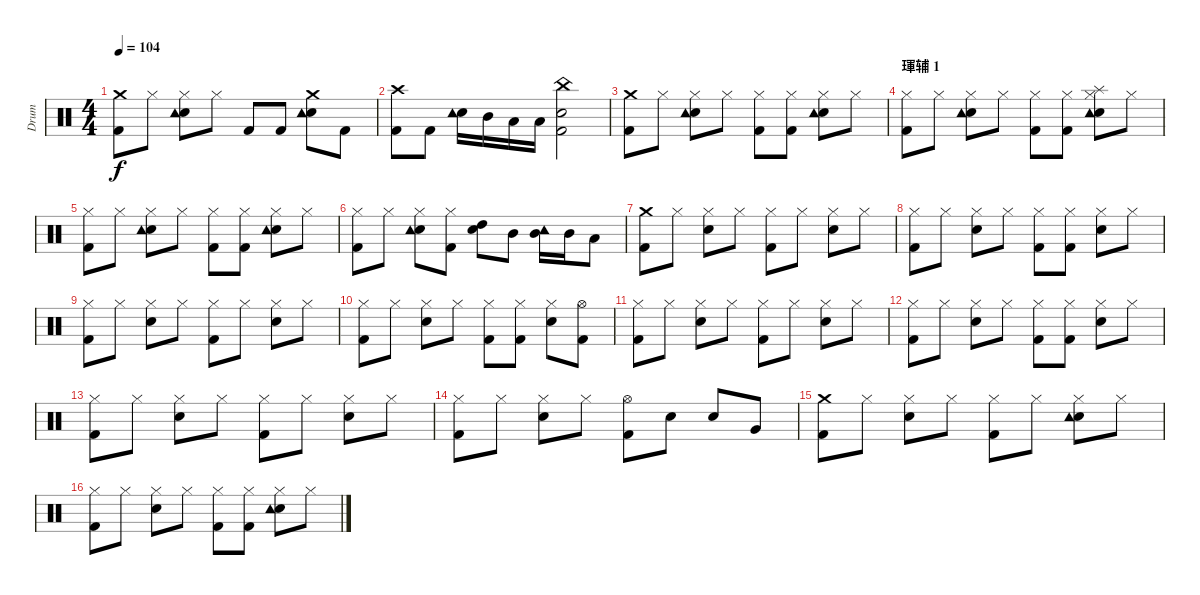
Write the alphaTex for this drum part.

\track ("Drum" "Drum") {instrument percussion}
\staff {score}
\articulation defaults
\ts (4 4)
\tempo 104
\clef neutral
\ks c
("Crash medium (hit)" "Kick (hit) 2").8{dy f} "Hi-Hat (closed)".8 ("Snare (hit) 2" "Hi-Hat (closed)" "Tambourine (hit)").8 "Hi-Hat (closed)".8 "Kick (hit) 2".8 "Kick (hit) 2".8 ("Snare (hit) 2" "Crash medium (hit)" "Tambourine (hit)").8 "Kick (hit) 2".8 |
("Crash high (hit)" "Kick (hit) 2").8 "Kick (hit) 2".8 ("Snare (hit) 2" "Tambourine (hit)").16 "Mid Tom (hit)".16 "Low Tom (hit)".16 "Low Tom (hit)".16 ("Snare (hit) 2" "China (hit)" "Kick (hit) 2").2 |
("Crash medium (hit)" "Kick (hit) 2").8 "Hi-Hat (closed)".8 ("Snare (hit) 2" "Hi-Hat (closed)" "Tambourine (hit)").8 "Hi-Hat (closed)".8 ("Hi-Hat (closed)" "Kick (hit) 2").8 ("Hi-Hat (closed)" "Kick (hit) 2").8 ("Snare (hit) 2" "Hi-Hat (closed)" "Tambourine (hit)").8 "Hi-Hat (closed)".8 |
\section ("" "琿辅 1")
("Hi-Hat (closed)" "Kick (hit) 2").8 "Hi-Hat (closed)".8 ("Snare (hit) 2" "Hi-Hat (closed)" "Tambourine (hit)").8 "Hi-Hat (closed)".8 ("Hi-Hat (closed)" "Kick (hit) 2").8 ("Hi-Hat (closed)" "Kick (hit) 2").8 ("Snare (hit) 2" "Hi-Hat (closed)" "Tambourine (hit)" "Splash (hit)").8 "Hi-Hat (closed)".8 |
("Hi-Hat (closed)" "Kick (hit) 2").8 "Hi-Hat (closed)".8 ("Snare (hit) 2" "Hi-Hat (closed)" "Tambourine (hit)").8 "Hi-Hat (closed)".8 ("Hi-Hat (closed)" "Kick (hit) 2").8 ("Hi-Hat (closed)" "Kick (hit) 2").8 ("Snare (hit) 2" "Hi-Hat (closed)" "Tambourine (hit)").8 "Hi-Hat (closed)".8 |
("Hi-Hat (closed)" "Kick (hit) 2").8 "Hi-Hat (closed)".8 ("Snare (hit) 2" "Hi-Hat (closed)" "Tambourine (hit)").8 ("Hi-Hat (closed)" "Kick (hit) 2").8 ("High Tom (hit)" "Snare (hit) 2").8 "Mid Tom (hit)".8 ("Mid Tom (hit)" "Tambourine (hit)").16 "Mid Tom (hit)".16 "Low Tom (hit)".8 |
("Crash medium (hit)" "Kick (hit) 2").8 "Hi-Hat (closed)".8 ("Snare (hit) 2" "Hi-Hat (closed)").8 "Hi-Hat (closed)".8 ("Hi-Hat (closed)" "Kick (hit) 2").8 "Hi-Hat (closed)".8 ("Snare (hit) 2" "Hi-Hat (closed)").8 "Hi-Hat (closed)".8 |
("Hi-Hat (closed)" "Kick (hit) 2").8 "Hi-Hat (closed)".8 ("Snare (hit) 2" "Hi-Hat (closed)").8 "Hi-Hat (closed)".8 ("Hi-Hat (closed)" "Kick (hit) 2").8 ("Hi-Hat (closed)" "Kick (hit) 2").8 ("Snare (hit) 2" "Hi-Hat (closed)").8 "Hi-Hat (closed)".8 |
("Hi-Hat (closed)" "Kick (hit) 2").8 "Hi-Hat (closed)".8 ("Snare (hit) 2" "Hi-Hat (closed)").8 "Hi-Hat (closed)".8 ("Hi-Hat (closed)" "Kick (hit) 2").8 "Hi-Hat (closed)".8 ("Snare (hit) 2" "Hi-Hat (closed)").8 "Hi-Hat (closed)".8 |
("Hi-Hat (closed)" "Kick (hit) 2").8 "Hi-Hat (closed)".8 ("Snare (hit) 2" "Hi-Hat (closed)").8 "Hi-Hat (closed)".8 ("Hi-Hat (closed)" "Kick (hit) 2").8 ("Hi-Hat (closed)" "Kick (hit) 2").8 ("Snare (hit) 2" "Hi-Hat (closed)").8 ("Hi-Hat (open)" "Kick (hit) 2").8 |
("Hi-Hat (closed)" "Kick (hit) 2").8 "Hi-Hat (closed)".8 ("Snare (hit) 2" "Hi-Hat (closed)").8 "Hi-Hat (closed)".8 ("Hi-Hat (closed)" "Kick (hit) 2").8 "Hi-Hat (closed)".8 ("Snare (hit) 2" "Hi-Hat (closed)").8 "Hi-Hat (closed)".8 |
("Hi-Hat (closed)" "Kick (hit) 2").8 "Hi-Hat (closed)".8 ("Snare (hit) 2" "Hi-Hat (closed)").8 "Hi-Hat (closed)".8 ("Hi-Hat (closed)" "Kick (hit) 2").8 ("Hi-Hat (closed)" "Kick (hit) 2").8 ("Snare (hit) 2" "Hi-Hat (closed)").8 "Hi-Hat (closed)".8 |
("Hi-Hat (closed)" "Kick (hit) 2").8 "Hi-Hat (closed)".8 ("Snare (hit) 2" "Hi-Hat (closed)").8 "Hi-Hat (closed)".8 ("Hi-Hat (closed)" "Kick (hit) 2").8 "Hi-Hat (closed)".8 ("Snare (hit) 2" "Hi-Hat (closed)").8 "Hi-Hat (closed)".8 |
("Hi-Hat (closed)" "Kick (hit) 2").8 "Hi-Hat (closed)".8 ("Snare (hit) 2" "Hi-Hat (closed)").8 "Hi-Hat (closed)".8 ("Hi-Hat (open)" "Kick (hit) 2").8 "Snare (hit) 2".8 "Snare (hit) 2".8 "Very Low Tom (hit)".8 |
("Crash medium (hit)" "Kick (hit) 2").8 "Hi-Hat (closed)".8 ("Snare (hit) 2" "Hi-Hat (closed)").8 "Hi-Hat (closed)".8 ("Hi-Hat (closed)" "Kick (hit) 2").8 "Hi-Hat (closed)".8 ("Snare (hit) 2" "Hi-Hat (closed)" "Tambourine (hit)").8 "Hi-Hat (closed)".8 |
("Hi-Hat (closed)" "Kick (hit) 2").8 "Hi-Hat (closed)".8 ("Snare (hit) 2" "Hi-Hat (closed)").8 "Hi-Hat (closed)".8 ("Hi-Hat (closed)" "Kick (hit) 2").8 ("Hi-Hat (closed)" "Kick (hit) 2").8 ("Snare (hit) 2" "Hi-Hat (closed)" "Tambourine (hit)").8 "Hi-Hat (closed)".8
